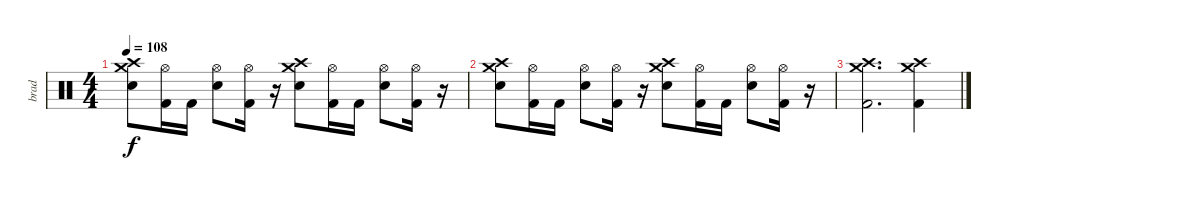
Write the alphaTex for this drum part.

\track ("brad" "brad") {instrument percussion}
\staff {score}
\articulation defaults
\ts (4 4)
\tempo 108
\clef neutral
\ks c
("Crash high (hit)" "Crash medium (hit)" "Electric Snare (hit)").8{dy f} ("Hi-Hat (open)" "Kick (hit) 2").16 "Kick (hit) 2".16 ("Hi-Hat (open)" "Electric Snare (hit)").8 ("Hi-Hat (open)" "Kick (hit) 2").16 r.16 ("Crash high (hit)" "Crash medium (hit)" "Electric Snare (hit)").8 ("Hi-Hat (open)" "Kick (hit) 2").16 "Kick (hit) 2".16 ("Hi-Hat (open)" "Electric Snare (hit)").8 ("Hi-Hat (open)" "Kick (hit) 2").16 r.16 |
("Crash high (hit)" "Crash medium (hit)" "Electric Snare (hit)").8 ("Hi-Hat (open)" "Kick (hit) 2").16 "Kick (hit) 2".16 ("Hi-Hat (open)" "Electric Snare (hit)").8 ("Hi-Hat (open)" "Kick (hit) 2").16 r.16 ("Crash high (hit)" "Crash medium (hit)" "Electric Snare (hit)").8 ("Hi-Hat (open)" "Kick (hit) 2").16 "Kick (hit) 2".16 ("Hi-Hat (open)" "Electric Snare (hit)").8 ("Hi-Hat (open)" "Kick (hit) 2").16 r.16 |
("Crash medium (hit)" "Crash high (hit)" "Kick (hit) 2").2{d} ("Crash medium (hit)" "Crash high (hit)" "Kick (hit) 2").4
